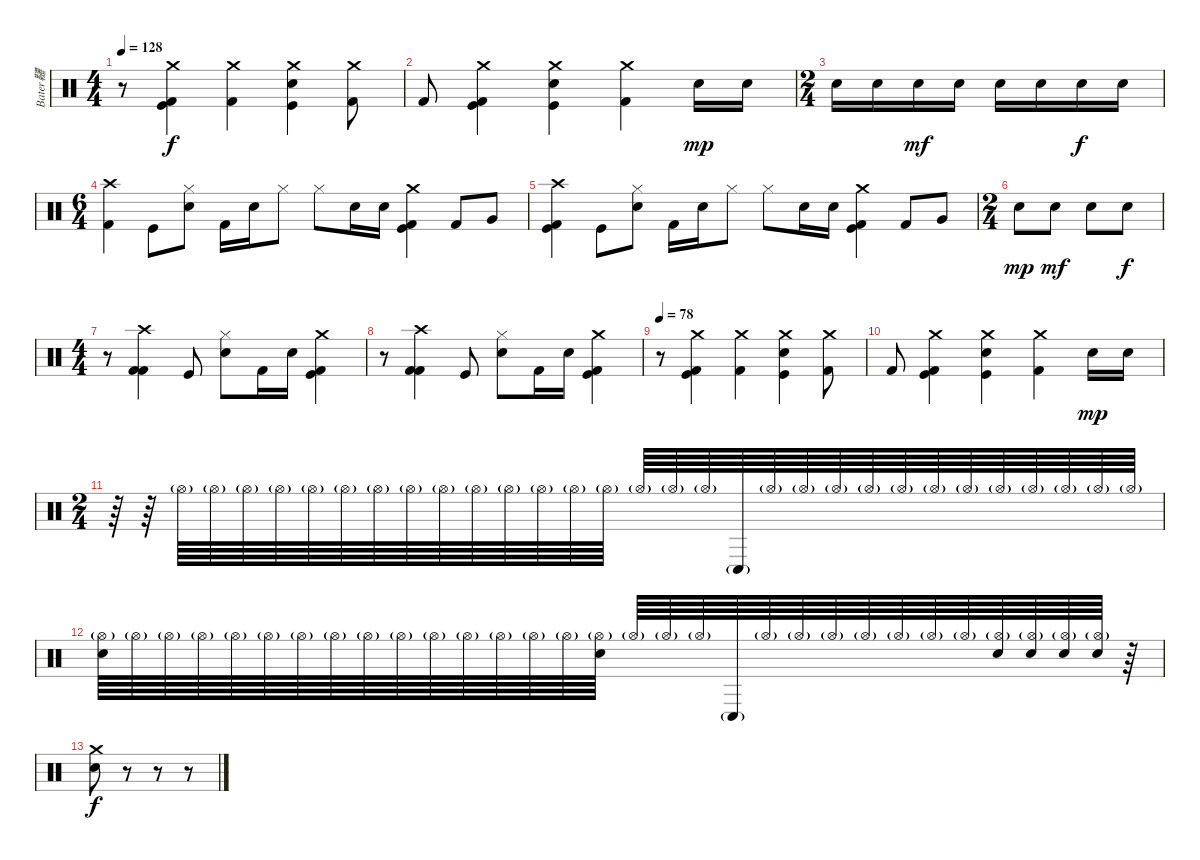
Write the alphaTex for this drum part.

\track ("Bater韆" "Bater韆") {instrument percussion}
\staff {score}
\articulation defaults
\ts (4 4)
\tempo 128
\clef neutral
\ks c
r.8{dy f} ("Crash medium (hit)" "Kick (hit)" "Kick (hit) 2").4 ("Crash medium (hit)" "Kick (hit) 2").4 ("Crash medium (hit)" "Electric Snare (hit)" "Kick (hit)").4 ("Crash medium (hit)" "Kick (hit) 2").8 |
"Kick (hit) 2".8 ("Crash medium (hit)" "Kick (hit)" "Kick (hit) 2").4 ("Crash medium (hit)" "Kick (hit)" "Electric Snare (hit)").4 ("Crash medium (hit)" "Kick (hit) 2").4 "Electric Snare (hit)".16{dy mp} "Electric Snare (hit)".16 |
\ts (2 4)
"Electric Snare (hit)".16 "Electric Snare (hit)".16 "Electric Snare (hit)".16{dy mf} "Electric Snare (hit)".16 "Electric Snare (hit)".16 "Electric Snare (hit)".16 "Electric Snare (hit)".16{dy f} "Electric Snare (hit)".16 |
\ts (6 4)
("Crash high (hit)" "Kick (hit) 2").4 "Kick (hit)".8 ("Hi-Hat (closed)" "Electric Snare (hit)").8 "Kick (hit) 2".16 "Snare (hit) 2".16 "Hi-Hat (closed)".8 "Hi-Hat (closed)".8 "Electric Snare (hit)".16 "Electric Snare (hit)".16 ("Crash medium (hit)" "Kick (hit)" "Kick (hit) 2").4 "Kick (hit) 2".8 "Very Low Tom (hit)".8 |
("Crash high (hit)" "Kick (hit)" "Kick (hit) 2").4 "Kick (hit)".8 ("Hi-Hat (closed)" "Electric Snare (hit)").8 "Kick (hit) 2".16 "Snare (hit) 2".16 "Hi-Hat (closed)".8 "Hi-Hat (closed)".8 "Electric Snare (hit)".16 "Electric Snare (hit)".16 ("Crash medium (hit)" "Kick (hit)" "Kick (hit) 2").4 "Kick (hit) 2".8 "Very Low Tom (hit)".8 |
\ts (2 4)
"Electric Snare (hit)".8{dy mp} "Electric Snare (hit)".8{dy mf} "Electric Snare (hit)".8 "Electric Snare (hit)".8{dy f} |
\ts (4 4)
r.8 ("Crash high (hit)" "Kick (hit) 2" "Kick (hit) 2").4 "Kick (hit)".8 ("Hi-Hat (closed)" "Electric Snare (hit)").8 "Kick (hit) 2".16 "Snare (hit) 2".16 ("Crash medium (hit)" "Kick (hit)" "Kick (hit) 2").4 |
r.8 ("Crash high (hit)" "Kick (hit) 2" "Kick (hit) 2").4 "Kick (hit)".8 ("Hi-Hat (closed)" "Electric Snare (hit)").8 "Kick (hit) 2".16 "Snare (hit) 2".16 ("Crash medium (hit)" "Kick (hit)" "Kick (hit) 2").4 |
\tempo 78
r.8 ("Crash medium (hit)" "Kick (hit)" "Kick (hit) 2").4 ("Crash medium (hit)" "Kick (hit) 2").4 ("Crash medium (hit)" "Electric Snare (hit)" "Kick (hit)").4 ("Crash medium (hit)" "Kick (hit) 2").8 |
"Kick (hit) 2".8 ("Crash medium (hit)" "Kick (hit)" "Kick (hit) 2").4 ("Crash medium (hit)" "Kick (hit)" "Electric Snare (hit)").4 ("Crash medium (hit)" "Kick (hit) 2").4 "Electric Snare (hit)".16{dy mp} "Electric Snare (hit)".16 |
\ts (2 4)
r.64 r.64 "Hi-Hat (open)"{g}.64 "Hi-Hat (open)"{g}.64 "Hi-Hat (open)"{g}.64 "Hi-Hat (open)"{g}.64 "Hi-Hat (open)"{g}.64 "Hi-Hat (open)"{g}.64 "Hi-Hat (open)"{g}.64 "Hi-Hat (open)"{g}.64 "Hi-Hat (open)"{g}.64 "Hi-Hat (open)"{g}.64 "Hi-Hat (open)"{g}.64 "Hi-Hat (open)"{g}.64 "Hi-Hat (open)"{g}.64 "Hi-Hat (open)"{g}.64 "Hi-Hat (open)"{g}.64 "Hi-Hat (open)"{g}.64 "Hi-Hat (open)"{g}.64 "Conga low (hit)"{g}.64 "Hi-Hat (open)"{g}.64 "Hi-Hat (open)"{g}.64 "Hi-Hat (open)"{g}.64 "Hi-Hat (open)"{g}.64 "Hi-Hat (open)"{g}.64 "Hi-Hat (open)"{g}.64 "Hi-Hat (open)"{g}.64 "Hi-Hat (open)"{g}.64 "Hi-Hat (open)"{g}.64 "Hi-Hat (open)"{g}.64 "Hi-Hat (open)"{g}.64 "Hi-Hat (open)"{g}.64 |
("Hi-Hat (open)"{g} "Electric Snare (hit)").64 "Hi-Hat (open)"{g}.64 "Hi-Hat (open)"{g}.64 "Hi-Hat (open)"{g}.64 "Hi-Hat (open)"{g}.64 "Hi-Hat (open)"{g}.64 "Hi-Hat (open)"{g}.64 "Hi-Hat (open)"{g}.64 "Hi-Hat (open)"{g}.64 "Hi-Hat (open)"{g}.64 "Hi-Hat (open)"{g}.64 "Hi-Hat (open)"{g}.64 "Hi-Hat (open)"{g}.64 "Hi-Hat (open)"{g}.64 "Hi-Hat (open)"{g}.64 ("Hi-Hat (open)"{g} "Electric Snare (hit)").64 "Hi-Hat (open)"{g}.64 "Hi-Hat (open)"{g}.64 "Hi-Hat (open)"{g}.64 "Conga low (hit)"{g}.64 "Hi-Hat (open)"{g}.64 "Hi-Hat (open)"{g}.64 "Hi-Hat (open)"{g}.64 "Hi-Hat (open)"{g}.64 "Hi-Hat (open)"{g}.64 "Hi-Hat (open)"{g}.64 "Hi-Hat (open)"{g}.64 ("Hi-Hat (open)"{g} "Electric Snare (hit)").64 ("Hi-Hat (open)"{g} "Electric Snare (hit)").64 ("Hi-Hat (open)"{g} "Electric Snare (hit)").64 ("Hi-Hat (open)"{g} "Electric Snare (hit)").64 r.64 |
("Crash medium (hit)" "Electric Snare (hit)").8{dy f} r.8 r.8 r.8
